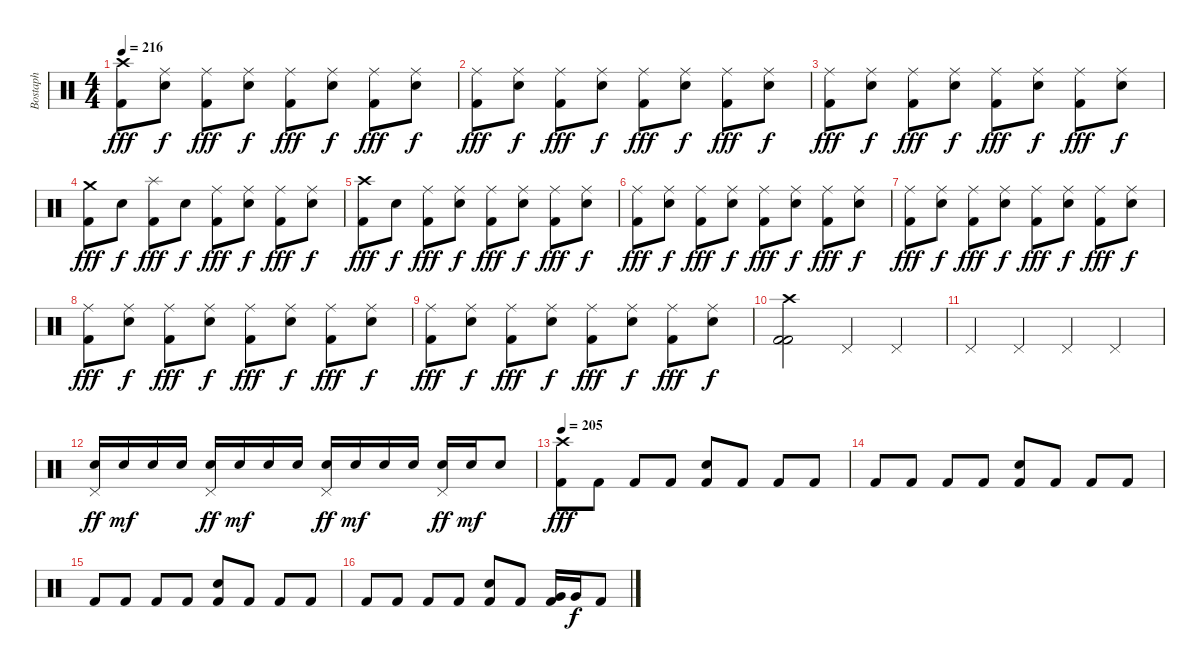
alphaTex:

\track ("Bostaph" "Bostaph") {instrument percussion}
\staff {score}
\articulation defaults
\ts (4 4)
\tempo 216
\clef neutral
\ks c
("Crash high (hit)" "Kick (hit) 2").8{dy fff} ("Ride (middle)" "Electric Snare (hit)").8{dy f} ("Ride (middle)" "Kick (hit) 2").8{dy fff} ("Ride (middle)" "Electric Snare (hit)").8{dy f} ("Ride (middle)" "Kick (hit) 2").8{dy fff} ("Ride (middle)" "Electric Snare (hit)").8{dy f} ("Ride (middle)" "Kick (hit) 2").8{dy fff} ("Ride (middle)" "Electric Snare (hit)").8{dy f} |
("Ride (middle)" "Kick (hit) 2").8{dy fff} ("Ride (middle)" "Electric Snare (hit)").8{dy f} ("Ride (middle)" "Kick (hit) 2").8{dy fff} ("Ride (middle)" "Electric Snare (hit)").8{dy f} ("Ride (middle)" "Kick (hit) 2").8{dy fff} ("Ride (middle)" "Electric Snare (hit)").8{dy f} ("Ride (middle)" "Kick (hit) 2").8{dy fff} ("Ride (middle)" "Electric Snare (hit)").8{dy f} |
("Ride (middle)" "Kick (hit) 2").8{dy fff} ("Ride (middle)" "Electric Snare (hit)").8{dy f} ("Ride (middle)" "Kick (hit) 2").8{dy fff} ("Ride (middle)" "Electric Snare (hit)").8{dy f} ("Ride (middle)" "Kick (hit) 2").8{dy fff} ("Ride (middle)" "Electric Snare (hit)").8{dy f} ("Ride (middle)" "Kick (hit) 2").8{dy fff} ("Ride (middle)" "Electric Snare (hit)").8{dy f} |
("Crash medium (hit)" "Kick (hit) 2").8{dy fff} "Electric Snare (hit)".8{dy f} ("Splash (hit)" "Kick (hit) 2").8{dy fff} "Electric Snare (hit)".8{dy f} ("Ride (middle)" "Kick (hit) 2").8{dy fff} ("Ride (middle)" "Electric Snare (hit)").8{dy f} ("Ride (middle)" "Kick (hit) 2").8{dy fff} ("Ride (middle)" "Electric Snare (hit)").8{dy f} |
("Crash high (hit)" "Kick (hit) 2").8{dy fff} "Electric Snare (hit)".8{dy f} ("Ride (middle)" "Kick (hit) 2").8{dy fff} ("Ride (middle)" "Electric Snare (hit)").8{dy f} ("Ride (middle)" "Kick (hit) 2").8{dy fff} ("Ride (middle)" "Electric Snare (hit)").8{dy f} ("Ride (middle)" "Kick (hit) 2").8{dy fff} ("Ride (middle)" "Electric Snare (hit)").8{dy f} |
("Ride (middle)" "Kick (hit) 2").8{dy fff} ("Ride (middle)" "Electric Snare (hit)").8{dy f} ("Ride (middle)" "Kick (hit) 2").8{dy fff} ("Ride (middle)" "Electric Snare (hit)").8{dy f} ("Ride (middle)" "Kick (hit) 2").8{dy fff} ("Ride (middle)" "Electric Snare (hit)").8{dy f} ("Ride (middle)" "Kick (hit) 2").8{dy fff} ("Ride (middle)" "Electric Snare (hit)").8{dy f} |
("Ride (middle)" "Kick (hit) 2").8{dy fff} ("Ride (middle)" "Electric Snare (hit)").8{dy f} ("Ride (middle)" "Kick (hit) 2").8{dy fff} ("Ride (middle)" "Electric Snare (hit)").8{dy f} ("Ride (middle)" "Kick (hit) 2").8{dy fff} ("Ride (middle)" "Electric Snare (hit)").8{dy f} ("Ride (middle)" "Kick (hit) 2").8{dy fff} ("Ride (middle)" "Electric Snare (hit)").8{dy f} |
("Ride (middle)" "Kick (hit) 2").8{dy fff} ("Ride (middle)" "Electric Snare (hit)").8{dy f} ("Ride (middle)" "Kick (hit) 2").8{dy fff} ("Ride (middle)" "Electric Snare (hit)").8{dy f} ("Ride (middle)" "Kick (hit) 2").8{dy fff} ("Ride (middle)" "Electric Snare (hit)").8{dy f} ("Ride (middle)" "Kick (hit) 2").8{dy fff} ("Ride (middle)" "Electric Snare (hit)").8{dy f} |
("Ride (middle)" "Kick (hit) 2").8{dy fff} ("Ride (middle)" "Electric Snare (hit)").8{dy f} ("Ride (middle)" "Kick (hit) 2").8{dy fff} ("Ride (middle)" "Electric Snare (hit)").8{dy f} ("Ride (middle)" "Kick (hit) 2").8{dy fff} ("Ride (middle)" "Electric Snare (hit)").8{dy f} ("Ride (middle)" "Kick (hit) 2").8{dy fff} ("Ride (middle)" "Electric Snare (hit)").8{dy f} |
("Crash high (hit)" "Kick (hit) 2" "Kick (hit) 2").2 "Pedal Hi-Hat (hit)".4 "Pedal Hi-Hat (hit)".4 |
"Pedal Hi-Hat (hit)".4 "Pedal Hi-Hat (hit)".4 "Pedal Hi-Hat (hit)".4 "Pedal Hi-Hat (hit)".4 |
("Pedal Hi-Hat (hit)" "Electric Snare (hit)").16{dy ff} "Electric Snare (hit)".16{dy mf} "Electric Snare (hit)".16 "Electric Snare (hit)".16 ("Pedal Hi-Hat (hit)" "Electric Snare (hit)").16{dy ff} "Electric Snare (hit)".16{dy mf} "Electric Snare (hit)".16 "Electric Snare (hit)".16 ("Pedal Hi-Hat (hit)" "Electric Snare (hit)").16{dy ff} "Electric Snare (hit)".16{dy mf} "Electric Snare (hit)".16 "Electric Snare (hit)".16 ("Pedal Hi-Hat (hit)" "Electric Snare (hit)").16{dy ff} "Electric Snare (hit)".16{dy mf} "Electric Snare (hit)".8 |
\tempo 205
("Crash high (hit)" "Kick (hit) 2").8{dy fff} "Kick (hit) 2".8 "Kick (hit) 2".8 "Kick (hit) 2".8 ("Electric Snare (hit)" "Kick (hit) 2").8 "Kick (hit) 2".8 "Kick (hit) 2".8 "Kick (hit) 2".8 |
"Kick (hit) 2".8 "Kick (hit) 2".8 "Kick (hit) 2".8 "Kick (hit) 2".8 ("Electric Snare (hit)" "Kick (hit) 2").8 "Kick (hit) 2".8 "Kick (hit) 2".8 "Kick (hit) 2".8 |
"Kick (hit) 2".8 "Kick (hit) 2".8 "Kick (hit) 2".8 "Kick (hit) 2".8 ("Electric Snare (hit)" "Kick (hit) 2").8 "Kick (hit) 2".8 "Kick (hit) 2".8 "Kick (hit) 2".8 |
"Kick (hit) 2".8 "Kick (hit) 2".8 "Kick (hit) 2".8 "Kick (hit) 2".8 ("Electric Snare (hit)" "Kick (hit) 2").8 "Kick (hit) 2".8 ("Very Low Tom (hit)" "Kick (hit) 2").16 "Very Low Tom (hit)".16{dy f} "Kick (hit) 2".8
